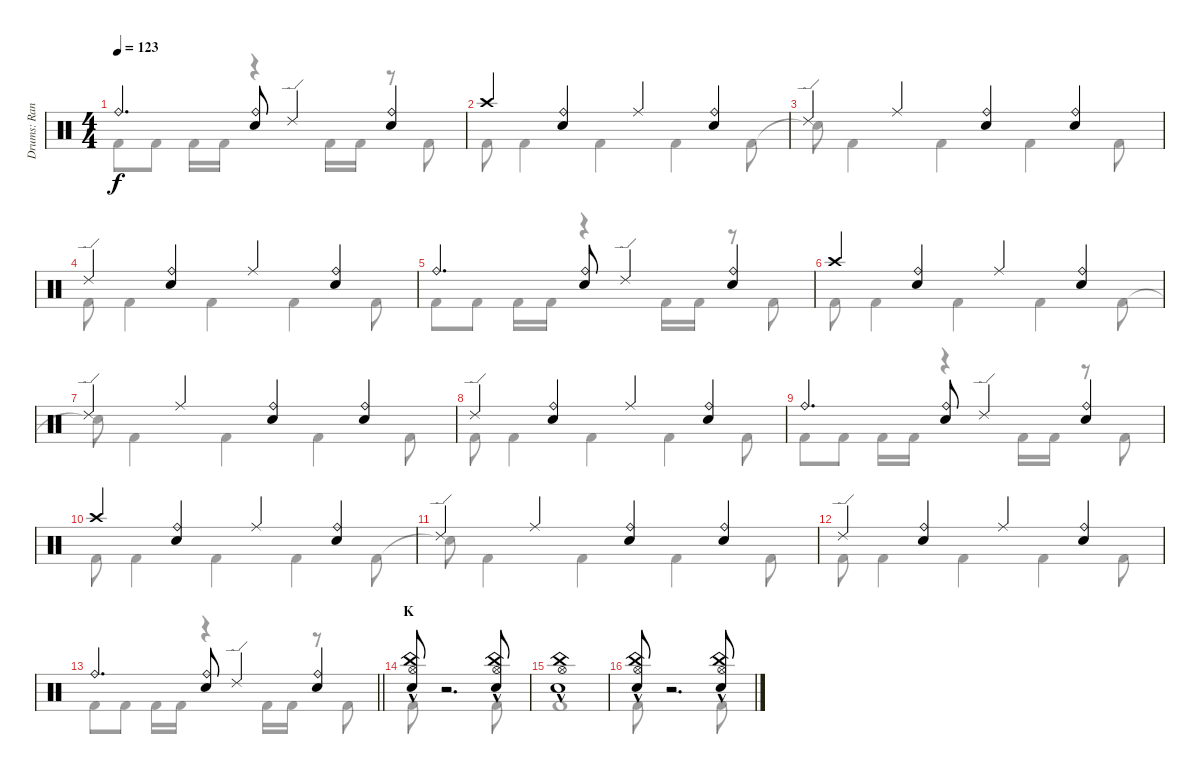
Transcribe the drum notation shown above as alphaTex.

\track ("Drums: Randy" "Drums: Ran") {instrument percussion}
\staff {score}
\articulation defaults
\voice
\ts (4 4)
\tempo 123
\clef neutral
\ks c "Ride (bell)".4{d dy f}
("Ride (bell)" "Snare (hit) 2").8 "Ride (edge) 2".4 ("Ride (bell)" "Snare (hit) 2").4 |
"Crash high (hit)".4 ("Ride (bell)" "Snare (hit) 2").4 "Ride (middle)".4 ("Ride (bell)" "Snare (hit) 2").4 |
"Ride (edge) 2".4 "Ride (middle)".4 ("Ride (bell)" "Snare (hit) 2").4 ("Ride (bell)" "Snare (hit) 2").4 |
"Ride (edge) 2".4 ("Ride (bell)" "Snare (hit) 2").4 "Ride (middle)".4 ("Ride (bell)" "Snare (hit) 2").4 |
"Ride (bell)".4{d} ("Ride (bell)" "Snare (hit) 2").8 "Ride (edge) 2".4 ("Ride (bell)" "Snare (hit) 2").4 |
"Crash high (hit)".4 ("Ride (bell)" "Snare (hit) 2").4 "Ride (middle)".4 ("Ride (bell)" "Snare (hit) 2").4 |
"Ride (edge) 2".4 "Ride (middle)".4 ("Ride (bell)" "Snare (hit) 2").4 ("Ride (bell)" "Snare (hit) 2").4 |
"Ride (edge) 2".4 ("Ride (bell)" "Snare (hit) 2").4 "Ride (middle)".4 ("Ride (bell)" "Snare (hit) 2").4 |
"Ride (bell)".4{d} ("Ride (bell)" "Snare (hit) 2").8 "Ride (edge) 2".4 ("Ride (bell)" "Snare (hit) 2").4 |
"Crash high (hit)".4 ("Ride (bell)" "Snare (hit) 2").4 "Ride (middle)".4 ("Ride (bell)" "Snare (hit) 2").4 |
"Ride (edge) 2".4 "Ride (middle)".4 ("Ride (bell)" "Snare (hit) 2").4 ("Ride (bell)" "Snare (hit) 2").4 |
"Ride (edge) 2".4 ("Ride (bell)" "Snare (hit) 2").4 "Ride (middle)".4 ("Ride (bell)" "Snare (hit) 2").4 |
\barLineRight lightlight "Ride (bell)".4{d}
("Ride (bell)" "Snare (hit) 2").8 "Ride (edge) 2".4 ("Ride (bell)" "Snare (hit) 2").4 |
\section ("" "K")
("China (hit)" "Hi-Hat (open)" "Snare (hit) 2"{hac}).8 r.2{d} ("China (hit)" "Hi-Hat (open)" "Snare (hit) 2"{hac}).8 |
("China (hit)" "Hi-Hat (open)" "Snare (hit) 2"{hac}).1 |
("China (hit)" "Hi-Hat (open)" "Snare (hit) 2"{hac}).8 r.2{d} ("China (hit)" "Hi-Hat (open)" "Snare (hit) 2"{hac}).8
\voice
\clef neutral
\ottava regular
\simile none
\ks c "Kick (hit) 2".8{dy f} "Kick (hit) 2".8 "Kick (hit) 2".16 "Kick (hit) 2".16
r.4 "Kick (hit) 2".16 "Kick (hit) 2".16 r.8 "Kick (hit) 2".8 |
"Kick (hit) 2".8 "Kick (hit) 2".4 "Kick (hit) 2".4 "Kick (hit) 2".4 "Kick (hit) 2".8 |
"Snare (hit)"{t}.8 "Kick (hit) 2".4 "Kick (hit) 2".4 "Kick (hit) 2".4 "Kick (hit) 2".8 |
"Kick (hit) 2".8 "Kick (hit) 2".4 "Kick (hit) 2".4 "Kick (hit) 2".4 "Kick (hit) 2".8 |
"Kick (hit) 2".8 "Kick (hit) 2".8 "Kick (hit) 2".16 "Kick (hit) 2".16 r.4 "Kick (hit) 2".16 "Kick (hit) 2".16 r.8 "Kick (hit) 2".8 |
"Kick (hit) 2".8 "Kick (hit) 2".4 "Kick (hit) 2".4 "Kick (hit) 2".4 "Kick (hit) 2".8 |
"Snare (hit)"{t}.8 "Kick (hit) 2".4 "Kick (hit) 2".4 "Kick (hit) 2".4 "Kick (hit) 2".8 |
"Kick (hit) 2".8 "Kick (hit) 2".4 "Kick (hit) 2".4 "Kick (hit) 2".4 "Kick (hit) 2".8 |
"Kick (hit) 2".8 "Kick (hit) 2".8 "Kick (hit) 2".16 "Kick (hit) 2".16 r.4 "Kick (hit) 2".16 "Kick (hit) 2".16 r.8 "Kick (hit) 2".8 |
"Kick (hit) 2".8 "Kick (hit) 2".4 "Kick (hit) 2".4 "Kick (hit) 2".4 "Kick (hit) 2".8 |
"Snare (hit)"{t}.8 "Kick (hit) 2".4 "Kick (hit) 2".4 "Kick (hit) 2".4 "Kick (hit) 2".8 |
"Kick (hit) 2".8 "Kick (hit) 2".4 "Kick (hit) 2".4 "Kick (hit) 2".4 "Kick (hit) 2".8 |
\barLineRight lightlight "Kick (hit) 2".8 "Kick (hit) 2".8 "Kick (hit) 2".16 "Kick (hit) 2".16
r.4 "Kick (hit) 2".16 "Kick (hit) 2".16 r.8 "Kick (hit) 2".8 |
"Kick (hit) 2".8 r.2{d} "Kick (hit) 2".8 |
"Kick (hit) 2".1 |
"Kick (hit) 2".8 r.2{d} "Kick (hit) 2".8
